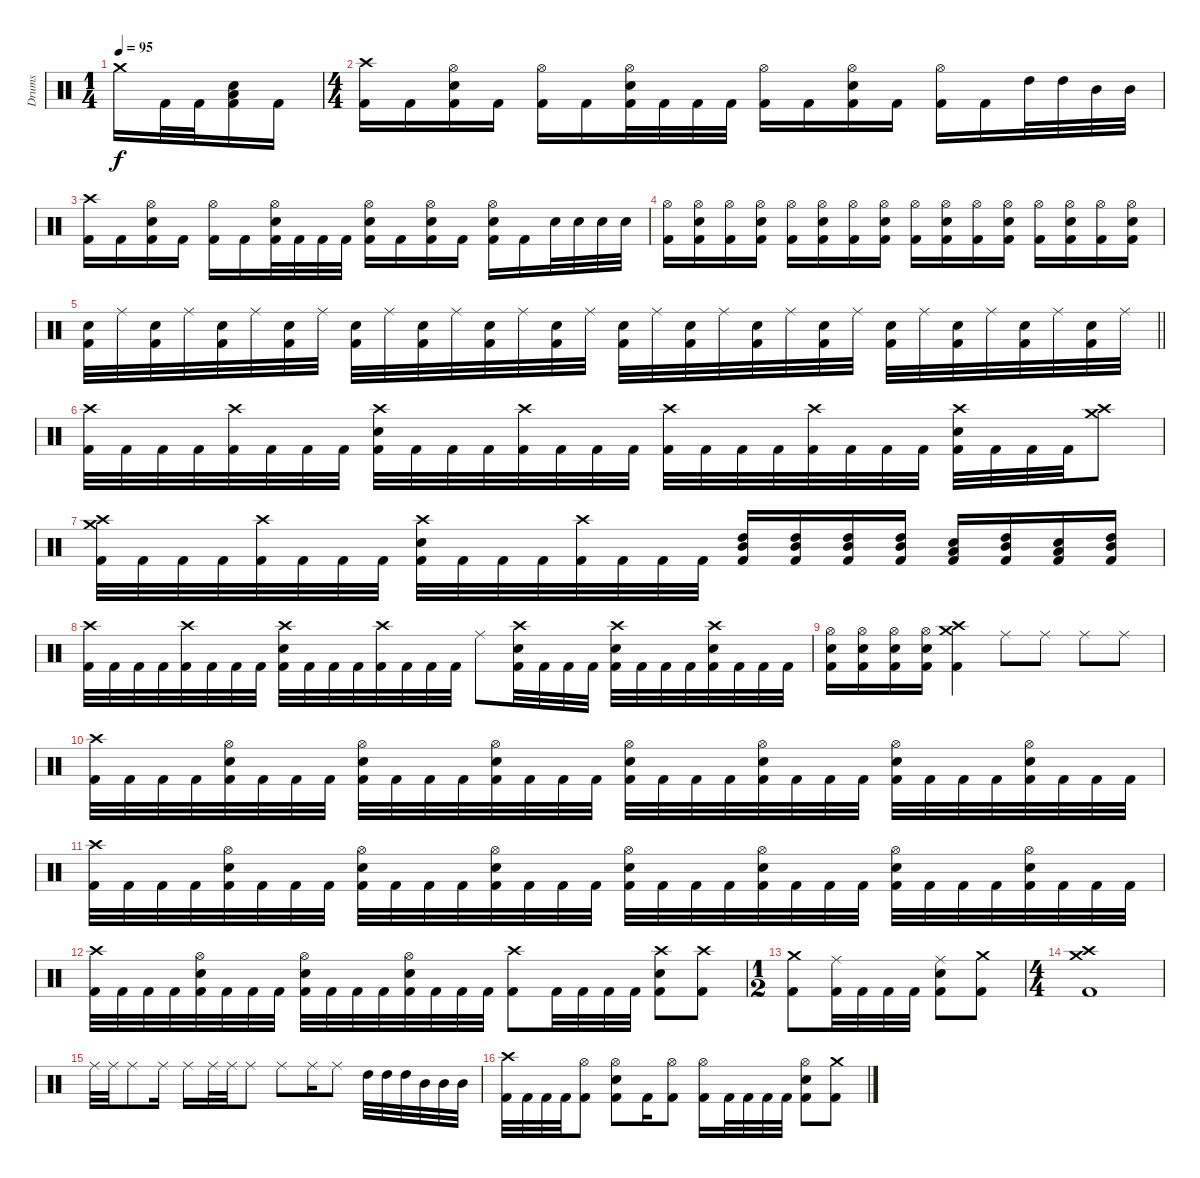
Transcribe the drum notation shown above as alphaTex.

\track ("Drums" "Drums") {instrument percussion}
\staff {score}
\articulation defaults
\ts (1 4)
\tempo 95
\clef neutral
\ks c "Crash medium (hit)".16{dy f} "Kick (hit) 2".32 "Kick (hit) 2".32
("Low Floor Tom (hit)" "Electric Snare (hit)" "Kick (hit) 2").16 "Kick (hit) 2".16 |
\ts (4 4)
("Crash high (hit)" "Kick (hit) 2").16 "Kick (hit) 2".16 ("Electric Snare (hit)" "Hi-Hat (open)" "Kick (hit) 2").16 "Kick (hit) 2".16 ("Hi-Hat (open)" "Kick (hit) 2").16 "Kick (hit) 2".16 ("Electric Snare (hit)" "Hi-Hat (open)" "Kick (hit) 2").32 "Kick (hit) 2".32 "Kick (hit) 2".32 "Kick (hit) 2".32 ("Hi-Hat (open)" "Kick (hit) 2").16 "Kick (hit) 2".16 ("Electric Snare (hit)" "Hi-Hat (open)" "Kick (hit) 2").16 "Kick (hit) 2".16 ("Hi-Hat (open)" "Kick (hit) 2").16 "Kick (hit) 2".16 "High Tom (hit)".32 "High Tom (hit)".32 "Mid Tom (hit)".32 "Mid Tom (hit)".32 |
("Crash high (hit)" "Kick (hit) 2").16 "Kick (hit) 2".16 ("Electric Snare (hit)" "Hi-Hat (open)" "Kick (hit) 2").16 "Kick (hit) 2".16 ("Hi-Hat (open)" "Kick (hit) 2").16 "Kick (hit) 2".16 ("Electric Snare (hit)" "Hi-Hat (open)" "Kick (hit) 2").32 "Kick (hit) 2".32 "Kick (hit) 2".32 "Kick (hit) 2".32 ("Hi-Hat (open)" "Electric Snare (hit)" "Kick (hit) 2").16 "Kick (hit) 2".16 ("Hi-Hat (open)" "Electric Snare (hit)" "Kick (hit) 2").16 "Kick (hit) 2".16 ("Hi-Hat (open)" "Electric Snare (hit)" "Kick (hit) 2").16 "Kick (hit) 2".16 "Electric Snare (hit)".32 "Electric Snare (hit)".32 "Electric Snare (hit)".32 "Electric Snare (hit)".32 |
("Hi-Hat (open)" "Kick (hit) 2").16 ("Electric Snare (hit)" "Hi-Hat (open)" "Kick (hit) 2").16 ("Hi-Hat (open)" "Kick (hit) 2").16 ("Electric Snare (hit)" "Hi-Hat (open)" "Kick (hit) 2").16 ("Hi-Hat (open)" "Kick (hit) 2").16 ("Electric Snare (hit)" "Hi-Hat (open)" "Kick (hit) 2").16 ("Hi-Hat (open)" "Kick (hit) 2").16 ("Electric Snare (hit)" "Hi-Hat (open)" "Kick (hit) 2").16 ("Hi-Hat (open)" "Kick (hit) 2").16 ("Electric Snare (hit)" "Hi-Hat (open)" "Kick (hit) 2").16 ("Hi-Hat (open)" "Kick (hit) 2").16 ("Electric Snare (hit)" "Hi-Hat (open)" "Kick (hit) 2").16 ("Hi-Hat (open)" "Kick (hit) 2").16 ("Electric Snare (hit)" "Hi-Hat (open)" "Kick (hit) 2").16 ("Hi-Hat (open)" "Kick (hit) 2").16 ("Electric Snare (hit)" "Hi-Hat (open)" "Kick (hit) 2").16 |
\barLineRight lightlight
("Electric Snare (hit)" "Kick (hit) 2").32 "Ride (middle)".32 ("Electric Snare (hit)" "Kick (hit) 2").32 "Ride (middle)".32 ("Electric Snare (hit)" "Kick (hit) 2").32 "Ride (middle)".32 ("Electric Snare (hit)" "Kick (hit) 2").32 "Ride (middle)".32 ("Electric Snare (hit)" "Kick (hit) 2").32 "Ride (middle)".32 ("Electric Snare (hit)" "Kick (hit) 2").32 "Ride (middle)".32 ("Electric Snare (hit)" "Kick (hit) 2").32 "Ride (middle)".32 ("Electric Snare (hit)" "Kick (hit) 2").32 "Ride (middle)".32 ("Electric Snare (hit)" "Kick (hit) 2").32 "Ride (middle)".32 ("Electric Snare (hit)" "Kick (hit) 2").32 "Ride (middle)".32 ("Electric Snare (hit)" "Kick (hit) 2").32 "Ride (middle)".32 ("Electric Snare (hit)" "Kick (hit) 2").32 "Ride (middle)".32 ("Electric Snare (hit)" "Kick (hit) 2").32 "Ride (middle)".32 ("Electric Snare (hit)" "Kick (hit) 2").32 "Ride (middle)".32 ("Electric Snare (hit)" "Kick (hit) 2").32 "Ride (middle)".32 ("Electric Snare (hit)" "Kick (hit) 2").32 "Ride (middle)".32 |
("Crash high (hit)" "Kick (hit) 2").32 "Kick (hit) 2".32 "Kick (hit) 2".32 "Kick (hit) 2".32 ("Crash high (hit)" "Kick (hit) 2").32 "Kick (hit) 2".32 "Kick (hit) 2".32 "Kick (hit) 2".32 ("Crash high (hit)" "Electric Snare (hit)" "Kick (hit) 2").32 "Kick (hit) 2".32 "Kick (hit) 2".32 "Kick (hit) 2".32 ("Crash high (hit)" "Kick (hit) 2").32 "Kick (hit) 2".32 "Kick (hit) 2".32 "Kick (hit) 2".32 ("Crash high (hit)" "Kick (hit) 2").32 "Kick (hit) 2".32 "Kick (hit) 2".32 "Kick (hit) 2".32 ("Crash high (hit)" "Kick (hit) 2").32 "Kick (hit) 2".32 "Kick (hit) 2".32 "Kick (hit) 2".32 ("Crash high (hit)" "Electric Snare (hit)" "Kick (hit) 2").32 "Kick (hit) 2".32 "Kick (hit) 2".32 "Kick (hit) 2".32 ("Crash medium (hit)" "Crash high (hit)").8 |
("Crash medium (hit)" "Crash high (hit)" "Kick (hit) 2").32 "Kick (hit) 2".32 "Kick (hit) 2".32 "Kick (hit) 2".32 ("Crash high (hit)" "Kick (hit) 2").32 "Kick (hit) 2".32 "Kick (hit) 2".32 "Kick (hit) 2".32 ("Crash high (hit)" "Electric Snare (hit)" "Kick (hit) 2").32 "Kick (hit) 2".32 "Kick (hit) 2".32 "Kick (hit) 2".32 ("Crash high (hit)" "Kick (hit) 2").32 "Kick (hit) 2".32 "Kick (hit) 2".32 "Kick (hit) 2".32 ("High Tom (hit)" "Mid Tom (hit)" "Kick (hit) 2").16 ("High Tom (hit)" "Mid Tom (hit)" "Kick (hit) 2").16 ("High Tom (hit)" "Mid Tom (hit)" "Kick (hit) 2").16 ("High Tom (hit)" "Mid Tom (hit)" "Kick (hit) 2").16 ("Electric Snare (hit)" "Low Floor Tom (hit)" "Kick (hit) 2").16 ("High Tom (hit)" "Mid Tom (hit)" "Kick (hit) 2").16 ("Electric Snare (hit)" "Low Floor Tom (hit)" "Kick (hit) 2").16 ("High Tom (hit)" "Mid Tom (hit)" "Kick (hit) 2").16 |
("Crash high (hit)" "Kick (hit) 2").32 "Kick (hit) 2".32 "Kick (hit) 2".32 "Kick (hit) 2".32 ("Crash high (hit)" "Kick (hit) 2").32 "Kick (hit) 2".32 "Kick (hit) 2".32 "Kick (hit) 2".32 ("Crash high (hit)" "Electric Snare (hit)" "Kick (hit) 2").32 "Kick (hit) 2".32 "Kick (hit) 2".32 "Kick (hit) 2".32 ("Crash high (hit)" "Kick (hit) 2").32 "Kick (hit) 2".32 "Kick (hit) 2".32 "Kick (hit) 2".32 "Ride (middle)".8 ("Crash high (hit)" "Electric Snare (hit)" "Kick (hit) 2").32 "Kick (hit) 2".32 "Kick (hit) 2".32 "Kick (hit) 2".32 ("Electric Snare (hit)" "Crash high (hit)" "Kick (hit) 2").32 "Kick (hit) 2".32 "Kick (hit) 2".32 "Kick (hit) 2".32 ("Electric Snare (hit)" "Crash high (hit)" "Kick (hit) 2").32 "Kick (hit) 2".32 "Kick (hit) 2".32 "Kick (hit) 2".32 |
("Kick (hit) 2" "Electric Snare (hit)" "Hi-Hat (open)").16 ("Kick (hit) 2" "Electric Snare (hit)" "Hi-Hat (open)").16 ("Kick (hit) 2" "Electric Snare (hit)" "Hi-Hat (open)").16 ("Kick (hit) 2" "Electric Snare (hit)" "Hi-Hat (open)").16 ("Kick (hit) 2" "Crash medium (hit)" "Crash high (hit)").4 "Ride (middle)".8 "Ride (middle)".8 "Ride (middle)".8 "Ride (middle)".8 |
("Crash high (hit)" "Kick (hit) 2").32 "Kick (hit) 2".32 "Kick (hit) 2".32 "Kick (hit) 2".32 ("Hi-Hat (open)" "Electric Snare (hit)" "Kick (hit) 2").32 "Kick (hit) 2".32 "Kick (hit) 2".32 "Kick (hit) 2".32 ("Electric Snare (hit)" "Hi-Hat (open)" "Kick (hit) 2").32 "Kick (hit) 2".32 "Kick (hit) 2".32 "Kick (hit) 2".32 ("Hi-Hat (open)" "Electric Snare (hit)" "Kick (hit) 2").32 "Kick (hit) 2".32 "Kick (hit) 2".32 "Kick (hit) 2".32 ("Hi-Hat (open)" "Electric Snare (hit)" "Kick (hit) 2").32 "Kick (hit) 2".32 "Kick (hit) 2".32 "Kick (hit) 2".32 ("Electric Snare (hit)" "Hi-Hat (open)" "Kick (hit) 2").32 "Kick (hit) 2".32 "Kick (hit) 2".32 "Kick (hit) 2".32 ("Electric Snare (hit)" "Hi-Hat (open)" "Kick (hit) 2").32 "Kick (hit) 2".32 "Kick (hit) 2".32 "Kick (hit) 2".32 ("Electric Snare (hit)" "Hi-Hat (open)" "Kick (hit) 2").32 "Kick (hit) 2".32 "Kick (hit) 2".32 "Kick (hit) 2".32 |
("Crash high (hit)" "Kick (hit) 2").32 "Kick (hit) 2".32 "Kick (hit) 2".32 "Kick (hit) 2".32 ("Hi-Hat (open)" "Electric Snare (hit)" "Kick (hit) 2").32 "Kick (hit) 2".32 "Kick (hit) 2".32 "Kick (hit) 2".32 ("Electric Snare (hit)" "Hi-Hat (open)" "Kick (hit) 2").32 "Kick (hit) 2".32 "Kick (hit) 2".32 "Kick (hit) 2".32 ("Hi-Hat (open)" "Electric Snare (hit)" "Kick (hit) 2").32 "Kick (hit) 2".32 "Kick (hit) 2".32 "Kick (hit) 2".32 ("Hi-Hat (open)" "Electric Snare (hit)" "Kick (hit) 2").32 "Kick (hit) 2".32 "Kick (hit) 2".32 "Kick (hit) 2".32 ("Electric Snare (hit)" "Hi-Hat (open)" "Kick (hit) 2").32 "Kick (hit) 2".32 "Kick (hit) 2".32 "Kick (hit) 2".32 ("Electric Snare (hit)" "Hi-Hat (open)" "Kick (hit) 2").32 "Kick (hit) 2".32 "Kick (hit) 2".32 "Kick (hit) 2".32 ("Electric Snare (hit)" "Hi-Hat (open)" "Kick (hit) 2").32 "Kick (hit) 2".32 "Kick (hit) 2".32 "Kick (hit) 2".32 |
("Crash high (hit)" "Kick (hit) 2").32 "Kick (hit) 2".32 "Kick (hit) 2".32 "Kick (hit) 2".32 ("Hi-Hat (open)" "Electric Snare (hit)" "Kick (hit) 2").32 "Kick (hit) 2".32 "Kick (hit) 2".32 "Kick (hit) 2".32 ("Electric Snare (hit)" "Hi-Hat (open)" "Kick (hit) 2").32 "Kick (hit) 2".32 "Kick (hit) 2".32 "Kick (hit) 2".32 ("Hi-Hat (open)" "Electric Snare (hit)" "Kick (hit) 2").32 "Kick (hit) 2".32 "Kick (hit) 2".32 "Kick (hit) 2".32 ("Crash high (hit)" "Kick (hit) 2").8 "Kick (hit) 2".32 "Kick (hit) 2".32 "Kick (hit) 2".32 "Kick (hit) 2".32 ("Crash high (hit)" "Electric Snare (hit)" "Kick (hit) 2").8 ("Crash high (hit)" "Kick (hit) 2").8 |
\ts (1 2)
("Crash medium (hit)" "Kick (hit) 2").8 ("Ride (middle)" "Kick (hit) 2").32 "Kick (hit) 2".32 "Kick (hit) 2".32 "Kick (hit) 2".32 ("Ride (middle)" "Electric Snare (hit)" "Kick (hit) 2").8 ("Crash medium (hit)" "Kick (hit) 2").8 |
\ts (4 4)
("Crash high (hit)" "Crash medium (hit)" "Kick (hit) 2").1 |
"Ride (middle)".32 "Ride (middle)".32 "Ride (middle)".8 "Ride (middle)".16 "Ride (middle)".16 "Ride (middle)".32 "Ride (middle)".32 "Ride (middle)".8 "Ride (middle)".8 "Ride (middle)".16 "Ride (middle)".8 "High Tom (hit)".32 "High Tom (hit)".32 "High Tom (hit)".32 "Mid Tom (hit)".32 "Mid Tom (hit)".32 "Mid Tom (hit)".32 |
("Crash high (hit)" "Kick (hit) 2").32 "Kick (hit) 2".32 "Kick (hit) 2".32 "Kick (hit) 2".32 ("Hi-Hat (open)" "Kick (hit) 2").8 ("Hi-Hat (open)" "Electric Snare (hit)" "Kick (hit) 2").8 "Kick (hit) 2".16 ("Hi-Hat (open)" "Kick (hit) 2").8 ("Hi-Hat (open)" "Kick (hit) 2").16 "Kick (hit) 2".32 "Kick (hit) 2".32 "Kick (hit) 2".32 "Kick (hit) 2".32 ("Hi-Hat (open)" "Electric Snare (hit)" "Kick (hit) 2").8 ("Crash medium (hit)" "Kick (hit) 2").8
